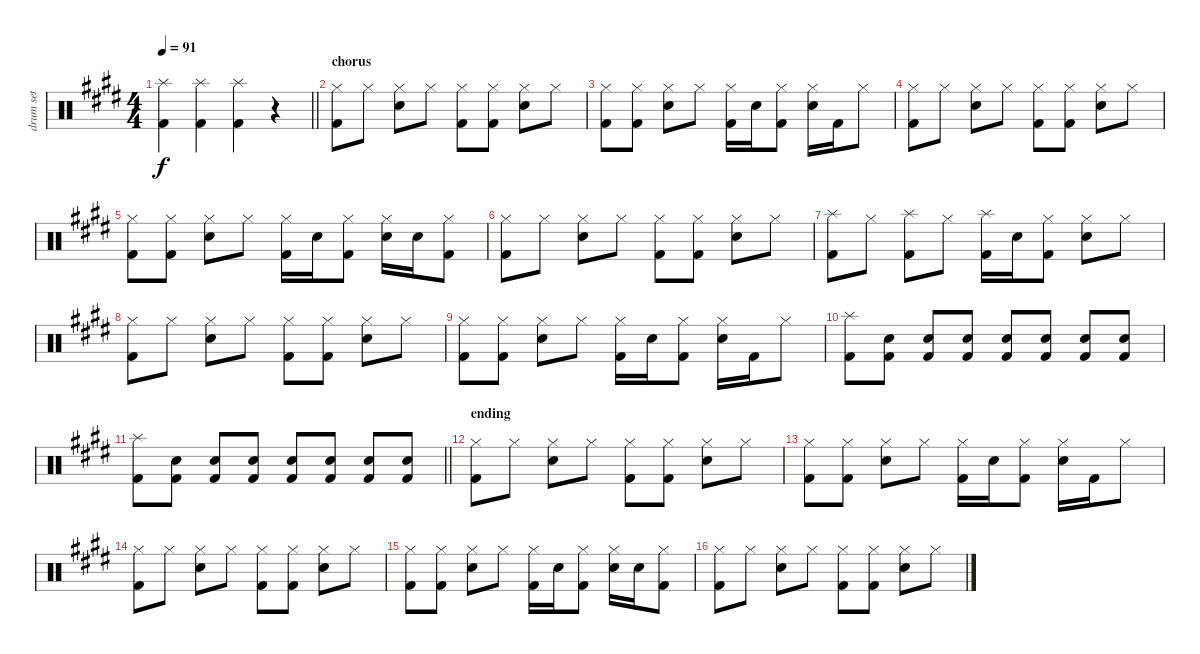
\track ("drum set" "drum set") {instrument percussion}
\staff {score}
\articulation defaults
\ts (4 4)
\tempo 91
\clef neutral
\barLineRight lightlight
\ks e
("Splash (hit)" "Kick (hit) 2").4{dy f} ("Splash (hit)" "Kick (hit) 2").4 ("Splash (hit)" "Kick (hit) 2").4 r.4 |
\section ("" "chorus")
("Hi-Hat (closed)" "Kick (hit) 2").8 "Hi-Hat (closed)".8 ("Hi-Hat (closed)" "Hand Clap (hit)").8 "Hi-Hat (closed)".8 ("Hi-Hat (closed)" "Kick (hit) 2").8 ("Hi-Hat (closed)" "Kick (hit) 2").8 ("Hi-Hat (closed)" "Hand Clap (hit)").8 "Hi-Hat (closed)".8 |
\ks c#minor
("Hi-Hat (closed)" "Kick (hit) 2").8 ("Hi-Hat (closed)" "Kick (hit) 2").8 ("Hi-Hat (closed)" "Hand Clap (hit)").8 "Hi-Hat (closed)".8 ("Hi-Hat (closed)" "Kick (hit) 2").16 "Hand Clap (hit)".16 ("Hi-Hat (closed)" "Kick (hit) 2").8 ("Hi-Hat (closed)" "Hand Clap (hit)").16 "Kick (hit) 2".16 "Hi-Hat (closed)".8 |
("Hi-Hat (closed)" "Kick (hit) 2").8 "Hi-Hat (closed)".8 ("Hi-Hat (closed)" "Hand Clap (hit)").8 "Hi-Hat (closed)".8 ("Hi-Hat (closed)" "Kick (hit) 2").8 ("Hi-Hat (closed)" "Kick (hit) 2").8 ("Hi-Hat (closed)" "Hand Clap (hit)").8 "Hi-Hat (closed)".8 |
("Hi-Hat (closed)" "Kick (hit) 2").8 ("Hi-Hat (closed)" "Kick (hit) 2").8 ("Hi-Hat (closed)" "Hand Clap (hit)").8 "Hi-Hat (closed)".8 ("Hi-Hat (closed)" "Kick (hit) 2").16 "Hand Clap (hit)".16 ("Hi-Hat (closed)" "Kick (hit) 2").8 ("Hi-Hat (closed)" "Hand Clap (hit)").16 "Hand Clap (hit)".16 ("Hi-Hat (closed)" "Kick (hit) 2").8 |
\ks e
("Hi-Hat (closed)" "Kick (hit) 2").8 "Hi-Hat (closed)".8 ("Hi-Hat (closed)" "Hand Clap (hit)").8 "Hi-Hat (closed)".8 ("Hi-Hat (closed)" "Kick (hit) 2").8 ("Hi-Hat (closed)" "Kick (hit) 2").8 ("Hi-Hat (closed)" "Hand Clap (hit)").8 "Hi-Hat (closed)".8 |
\ks c#minor
("Splash (hit)" "Kick (hit) 2").8 "Hi-Hat (closed)".8 ("Splash (hit)" "Kick (hit) 2").8 "Hi-Hat (closed)".8 ("Splash (hit)" "Kick (hit) 2").16 "Hand Clap (hit)".16 ("Hi-Hat (closed)" "Kick (hit) 2").8 ("Hi-Hat (closed)" "Hand Clap (hit)").8 "Hi-Hat (closed)".8 |
("Hi-Hat (closed)" "Kick (hit) 2").8 "Hi-Hat (closed)".8 ("Hi-Hat (closed)" "Hand Clap (hit)").8 "Hi-Hat (closed)".8 ("Hi-Hat (closed)" "Kick (hit) 2").8 ("Hi-Hat (closed)" "Kick (hit) 2").8 ("Hi-Hat (closed)" "Hand Clap (hit)").8 "Hi-Hat (closed)".8 |
("Hi-Hat (closed)" "Kick (hit) 2").8 ("Hi-Hat (closed)" "Kick (hit) 2").8 ("Hi-Hat (closed)" "Hand Clap (hit)").8 "Hi-Hat (closed)".8 ("Hi-Hat (closed)" "Kick (hit) 2").16 "Hand Clap (hit)".16 ("Hi-Hat (closed)" "Kick (hit) 2").8 ("Hi-Hat (closed)" "Hand Clap (hit)").16 "Kick (hit) 2".16 "Hi-Hat (closed)".8 |
("Splash (hit)" "Kick (hit) 2").8{volume 12} ("Hand Clap (hit)" "Kick (hit) 2").8{volume 16} ("Hand Clap (hit)" "Kick (hit) 2").8 ("Hand Clap (hit)" "Kick (hit) 2").8 ("Hand Clap (hit)" "Kick (hit) 2").8 ("Hand Clap (hit)" "Kick (hit) 2").8 ("Hand Clap (hit)" "Kick (hit) 2").8 ("Hand Clap (hit)" "Kick (hit) 2").8 |
\barLineRight lightlight
\ks e
("Splash (hit)" "Kick (hit) 2").8 ("Hand Clap (hit)" "Kick (hit) 2").8 ("Hand Clap (hit)" "Kick (hit) 2").8 ("Hand Clap (hit)" "Kick (hit) 2").8 ("Hand Clap (hit)" "Kick (hit) 2").8 ("Hand Clap (hit)" "Kick (hit) 2").8 ("Hand Clap (hit)" "Kick (hit) 2").8 ("Hand Clap (hit)" "Kick (hit) 2").8 |
\section ("" "ending")
("Hi-Hat (closed)" "Kick (hit) 2").8 "Hi-Hat (closed)".8 ("Hi-Hat (closed)" "Hand Clap (hit)").8 "Hi-Hat (closed)".8 ("Hi-Hat (closed)" "Kick (hit) 2").8 ("Hi-Hat (closed)" "Kick (hit) 2").8 ("Hi-Hat (closed)" "Hand Clap (hit)").8 "Hi-Hat (closed)".8 |
("Hi-Hat (closed)" "Kick (hit) 2").8 ("Hi-Hat (closed)" "Kick (hit) 2").8 ("Hi-Hat (closed)" "Hand Clap (hit)").8 "Hi-Hat (closed)".8 ("Hi-Hat (closed)" "Kick (hit) 2").16 "Hand Clap (hit)".16 ("Hi-Hat (closed)" "Kick (hit) 2").8 ("Hi-Hat (closed)" "Hand Clap (hit)").16 "Kick (hit) 2".16 "Hi-Hat (closed)".8 |
\ks c#minor
("Hi-Hat (closed)" "Kick (hit) 2").8 "Hi-Hat (closed)".8 ("Hi-Hat (closed)" "Hand Clap (hit)").8 "Hi-Hat (closed)".8 ("Hi-Hat (closed)" "Kick (hit) 2").8 ("Hi-Hat (closed)" "Kick (hit) 2").8 ("Hi-Hat (closed)" "Hand Clap (hit)").8 "Hi-Hat (closed)".8 |
\ks e
("Hi-Hat (closed)" "Kick (hit) 2").8 ("Hi-Hat (closed)" "Kick (hit) 2").8 ("Hi-Hat (closed)" "Hand Clap (hit)").8 "Hi-Hat (closed)".8 ("Hi-Hat (closed)" "Kick (hit) 2").16 "Hand Clap (hit)".16 ("Hi-Hat (closed)" "Kick (hit) 2").8 ("Hi-Hat (closed)" "Hand Clap (hit)").16 "Hand Clap (hit)".16 ("Hi-Hat (closed)" "Kick (hit) 2").8 |
\ks c#minor
("Hi-Hat (closed)" "Kick (hit) 2").8 "Hi-Hat (closed)".8 ("Hi-Hat (closed)" "Hand Clap (hit)").8 "Hi-Hat (closed)".8 ("Hi-Hat (closed)" "Kick (hit) 2").8 ("Hi-Hat (closed)" "Kick (hit) 2").8 ("Hi-Hat (closed)" "Hand Clap (hit)").8 "Hi-Hat (closed)".8
